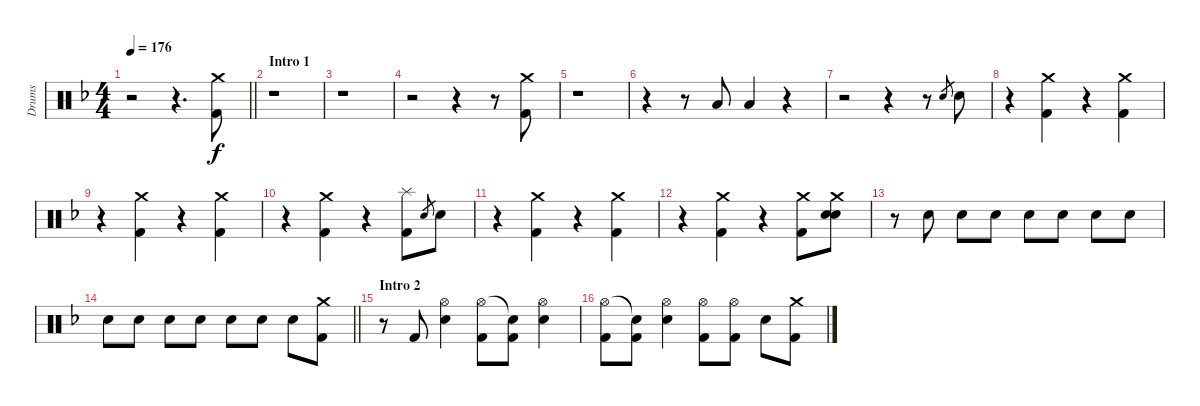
\track ("Drums" "Drums") {instrument percussion}
\staff {score}
\articulation defaults
\ts (4 4)
\tempo 176
\clef neutral
\barLineRight lightlight
\ks f
r.2{dy f} r.4{d} ("Crash medium (hit)" "Kick (hit) 2").8 |
\section ("" "Intro 1")
r.1 |
r.1 |
r.2 r.4 r.8 ("Crash medium (hit)" "Kick (hit) 2").8 |
r.1 |
r.4 r.8 "Low Floor Tom (hit)".8 "Low Floor Tom (hit)".4 r.4 |
r.2 r.4 r.8 "Electric Snare (hit)".8{gr} "Electric Snare (hit)".8 |
r.4 ("Crash medium (hit)" "Kick (hit) 2").4 r.4 ("Crash medium (hit)" "Kick (hit) 2").4 |
r.4 ("Crash medium (hit)" "Kick (hit) 2").4 r.4 ("Crash medium (hit)" "Kick (hit) 2").4 |
r.4 ("Crash medium (hit)" "Kick (hit) 2").4 r.4 ("Splash (hit)" "Kick (hit) 2").8 "Electric Snare (hit)".8{gr} "Electric Snare (hit)".8 |
r.4 ("Crash medium (hit)" "Kick (hit) 2").4 r.4 ("Crash medium (hit)" "Kick (hit) 2").4 |
r.4 ("Crash medium (hit)" "Kick (hit) 2").4 r.4 ("Crash medium (hit)" "Kick (hit) 2").8 ("Crash medium (hit)" "Electric Snare (hit)" "Snare (hit)").8 |
r.8 "Electric Snare (hit)".8 "Electric Snare (hit)".8 "Electric Snare (hit)".8 "Electric Snare (hit)".8 "Electric Snare (hit)".8 "Electric Snare (hit)".8 "Electric Snare (hit)".8 |
\barLineRight lightlight "Electric Snare (hit)".8 "Electric Snare (hit)".8 "Electric Snare (hit)".8 "Electric Snare (hit)".8 "Electric Snare (hit)".8 "Electric Snare (hit)".8 "Electric Snare (hit)".8
("Crash medium (hit)" "Kick (hit) 2").8 |
\section ("" "Intro 2")
r.8 "Kick (hit) 2".8 ("Hi-Hat (open)" "Electric Snare (hit)").4 ("Hi-Hat (open)" "Kick (hit) 2").8 ("Snare (hit)"{t} "Kick (hit) 2").8 ("Hi-Hat (open)" "Electric Snare (hit)").4 |
("Hi-Hat (open)" "Kick (hit) 2").8 ("Snare (hit)"{t} "Kick (hit) 2").8 ("Hi-Hat (open)" "Electric Snare (hit)").4 ("Hi-Hat (open)" "Kick (hit) 2").8 ("Hi-Hat (open)" "Kick (hit) 2").8 "Electric Snare (hit)".8 ("Crash medium (hit)" "Kick (hit) 2").8
